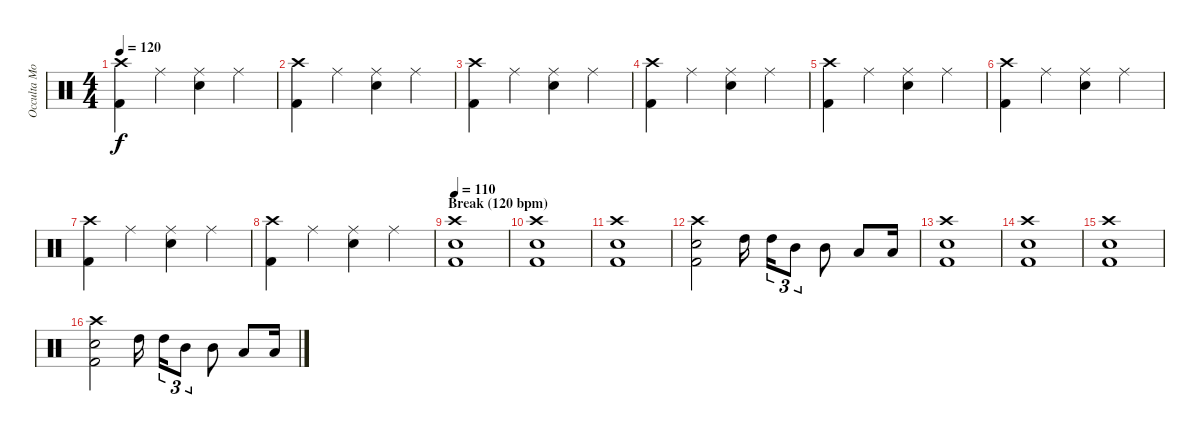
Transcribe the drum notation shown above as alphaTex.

\track ("Occulta Mors (Drums)" "Occulta Mo") {instrument percussion}
\staff {score}
\articulation defaults
\ts (4 4)
\tempo 120
\clef neutral
\ks c
("Crash high (hit)" "Kick (hit) 2").4{dy f} "Ride (middle)".4 ("Ride (middle)" "Snare (hit) 2").4 "Ride (middle)".4 |
("Crash high (hit)" "Kick (hit) 2").4 "Ride (middle)".4 ("Ride (middle)" "Snare (hit) 2").4 "Ride (middle)".4 |
("Crash high (hit)" "Kick (hit) 2").4 "Ride (middle)".4 ("Ride (middle)" "Snare (hit) 2").4 "Ride (middle)".4 |
("Crash high (hit)" "Kick (hit) 2").4 "Ride (middle)".4 ("Ride (middle)" "Snare (hit) 2").4 "Ride (middle)".4 |
("Crash high (hit)" "Kick (hit) 2").4 "Ride (middle)".4 ("Ride (middle)" "Snare (hit) 2").4 "Ride (middle)".4 |
("Crash high (hit)" "Kick (hit) 2").4 "Ride (middle)".4 ("Ride (middle)" "Snare (hit) 2").4 "Ride (middle)".4 |
("Crash high (hit)" "Kick (hit) 2").4 "Ride (middle)".4 ("Ride (middle)" "Snare (hit) 2").4 "Ride (middle)".4 |
("Crash high (hit)" "Kick (hit) 2").4 "Ride (middle)".4 ("Ride (middle)" "Snare (hit) 2").4 "Ride (middle)".4 |
\section ("" "Break (120 bpm)")
\tempo 110
("Crash high (hit)" "Snare (hit) 2" "Kick (hit) 2").1 |
("Crash high (hit)" "Snare (hit) 2" "Kick (hit) 2").1 |
("Crash high (hit)" "Snare (hit) 2" "Kick (hit) 2").1 |
("Crash high (hit)" "Snare (hit) 2" "Kick (hit) 2").2 "High Tom (hit)".16 "High Tom (hit)".16{tu (3 2)} "Mid Tom (hit)".8{tu (3 2)} "Mid Tom (hit)".8 "Low Tom (hit)".8 "Low Tom (hit)".16 |
("Crash high (hit)" "Snare (hit) 2" "Kick (hit) 2").1 |
("Crash high (hit)" "Snare (hit) 2" "Kick (hit) 2").1 |
("Crash high (hit)" "Snare (hit) 2" "Kick (hit) 2").1 |
("Crash high (hit)" "Snare (hit) 2" "Kick (hit) 2").2 "High Tom (hit)".16 "High Tom (hit)".16{tu (3 2)} "Mid Tom (hit)".8{tu (3 2)} "Mid Tom (hit)".8 "Low Tom (hit)".8 "Low Tom (hit)".16
